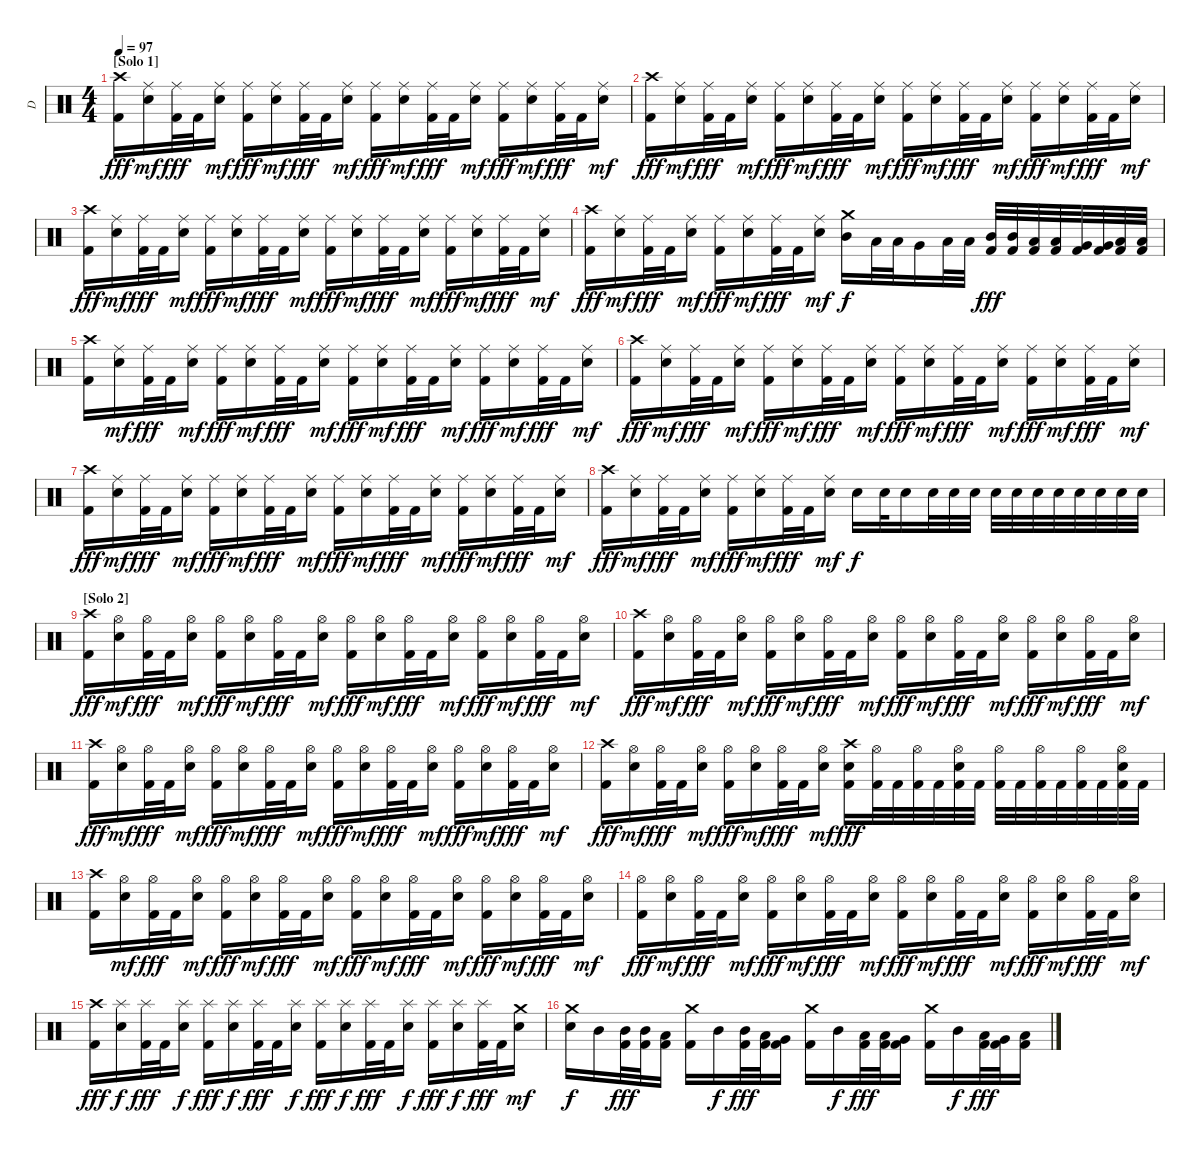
\track ("D" "D") {instrument percussion}
\staff {score}
\articulation defaults
\ts (4 4)
\section ("" "[Solo 1]")
\tempo 97
\clef neutral
\ks c
("Crash high (hit)" "Kick (hit) 2").16{dy fff} ("Ride (middle)" "Snare (hit) 2").16{dy mf} ("Ride (middle)" "Kick (hit) 2").32{dy fff} "Kick (hit) 2".32 ("Ride (middle)" "Snare (hit) 2").16{dy mf} ("Ride (middle)" "Kick (hit) 2").16{dy fff} ("Ride (middle)" "Snare (hit) 2").16{dy mf} ("Ride (middle)" "Kick (hit) 2").32{dy fff} "Kick (hit) 2".32 ("Ride (middle)" "Snare (hit) 2").16{dy mf} ("Ride (middle)" "Kick (hit) 2").16{dy fff} ("Ride (middle)" "Snare (hit) 2").16{dy mf} ("Ride (middle)" "Kick (hit) 2").32{dy fff} "Kick (hit) 2".32 ("Ride (middle)" "Snare (hit) 2").16{dy mf} ("Ride (middle)" "Kick (hit) 2").16{dy fff} ("Ride (middle)" "Snare (hit) 2").16{dy mf} ("Ride (middle)" "Kick (hit) 2").32{dy fff} "Kick (hit) 2".32 ("Ride (middle)" "Snare (hit) 2").16{dy mf} |
("Crash high (hit)" "Kick (hit) 2").16{dy fff} ("Ride (middle)" "Snare (hit) 2").16{dy mf} ("Ride (middle)" "Kick (hit) 2").32{dy fff} "Kick (hit) 2".32 ("Ride (middle)" "Snare (hit) 2").16{dy mf} ("Ride (middle)" "Kick (hit) 2").16{dy fff} ("Ride (middle)" "Snare (hit) 2").16{dy mf} ("Ride (middle)" "Kick (hit) 2").32{dy fff} "Kick (hit) 2".32 ("Ride (middle)" "Snare (hit) 2").16{dy mf} ("Ride (middle)" "Kick (hit) 2").16{dy fff} ("Ride (middle)" "Snare (hit) 2").16{dy mf} ("Ride (middle)" "Kick (hit) 2").32{dy fff} "Kick (hit) 2".32 ("Ride (middle)" "Snare (hit) 2").16{dy mf} ("Ride (middle)" "Kick (hit) 2").16{dy fff} ("Ride (middle)" "Snare (hit) 2").16{dy mf} ("Ride (middle)" "Kick (hit) 2").32{dy fff} "Kick (hit) 2".32 ("Ride (middle)" "Snare (hit) 2").16{dy mf} |
("Crash high (hit)" "Kick (hit) 2").16{dy fff} ("Ride (middle)" "Snare (hit) 2").16{dy mf} ("Ride (middle)" "Kick (hit) 2").32{dy fff} "Kick (hit) 2".32 ("Ride (middle)" "Snare (hit) 2").16{dy mf} ("Ride (middle)" "Kick (hit) 2").16{dy fff} ("Ride (middle)" "Snare (hit) 2").16{dy mf} ("Ride (middle)" "Kick (hit) 2").32{dy fff} "Kick (hit) 2".32 ("Ride (middle)" "Snare (hit) 2").16{dy mf} ("Ride (middle)" "Kick (hit) 2").16{dy fff} ("Ride (middle)" "Snare (hit) 2").16{dy mf} ("Ride (middle)" "Kick (hit) 2").32{dy fff} "Kick (hit) 2".32 ("Ride (middle)" "Snare (hit) 2").16{dy mf} ("Ride (middle)" "Kick (hit) 2").16{dy fff} ("Ride (middle)" "Snare (hit) 2").16{dy mf} ("Ride (middle)" "Kick (hit) 2").32{dy fff} "Kick (hit) 2".32 ("Ride (middle)" "Snare (hit) 2").16{dy mf} |
("Crash high (hit)" "Kick (hit) 2").16{dy fff} ("Ride (middle)" "Snare (hit) 2").16{dy mf} ("Ride (middle)" "Kick (hit) 2").32{dy fff} "Kick (hit) 2".32 ("Ride (middle)" "Snare (hit) 2").16{dy mf} ("Ride (middle)" "Kick (hit) 2").16{dy fff} ("Ride (middle)" "Snare (hit) 2").16{dy mf} ("Ride (middle)" "Kick (hit) 2").32{dy fff} "Kick (hit) 2".32 ("Ride (middle)" "Snare (hit) 2").16{dy mf} ("Crash medium (hit)" "Mid Tom (hit)").16{dy f} "Low Tom (hit)".32 "Low Tom (hit)".32 "Very Low Tom (hit)".16 "Low Floor Tom (hit)".32 "Low Floor Tom (hit)".32 ("Mid Tom (hit)" "Kick (hit) 2").32{dy fff} ("Mid Tom (hit)" "Kick (hit) 2").32 ("Low Tom (hit)" "Kick (hit) 2").32 ("Low Tom (hit)" "Kick (hit) 2").32 ("Very Low Tom (hit)" "Kick (hit) 2").32 ("Very Low Tom (hit)" "Kick (hit) 2").32 ("Low Floor Tom (hit)" "Kick (hit) 2").32 ("Low Floor Tom (hit)" "Kick (hit) 2").32 |
("Crash high (hit)" "Kick (hit) 2").16 ("Ride (middle)" "Snare (hit) 2").16{dy mf} ("Ride (middle)" "Kick (hit) 2").32{dy fff} "Kick (hit) 2".32 ("Ride (middle)" "Snare (hit) 2").16{dy mf} ("Ride (middle)" "Kick (hit) 2").16{dy fff} ("Ride (middle)" "Snare (hit) 2").16{dy mf} ("Ride (middle)" "Kick (hit) 2").32{dy fff} "Kick (hit) 2".32 ("Ride (middle)" "Snare (hit) 2").16{dy mf} ("Ride (middle)" "Kick (hit) 2").16{dy fff} ("Ride (middle)" "Snare (hit) 2").16{dy mf} ("Ride (middle)" "Kick (hit) 2").32{dy fff} "Kick (hit) 2".32 ("Ride (middle)" "Snare (hit) 2").16{dy mf} ("Ride (middle)" "Kick (hit) 2").16{dy fff} ("Ride (middle)" "Snare (hit) 2").16{dy mf} ("Ride (middle)" "Kick (hit) 2").32{dy fff} "Kick (hit) 2".32 ("Ride (middle)" "Snare (hit) 2").16{dy mf} |
("Crash high (hit)" "Kick (hit) 2").16{dy fff} ("Ride (middle)" "Snare (hit) 2").16{dy mf} ("Ride (middle)" "Kick (hit) 2").32{dy fff} "Kick (hit) 2".32 ("Ride (middle)" "Snare (hit) 2").16{dy mf} ("Ride (middle)" "Kick (hit) 2").16{dy fff} ("Ride (middle)" "Snare (hit) 2").16{dy mf} ("Ride (middle)" "Kick (hit) 2").32{dy fff} "Kick (hit) 2".32 ("Ride (middle)" "Snare (hit) 2").16{dy mf} ("Ride (middle)" "Kick (hit) 2").16{dy fff} ("Ride (middle)" "Snare (hit) 2").16{dy mf} ("Ride (middle)" "Kick (hit) 2").32{dy fff} "Kick (hit) 2".32 ("Ride (middle)" "Snare (hit) 2").16{dy mf} ("Ride (middle)" "Kick (hit) 2").16{dy fff} ("Ride (middle)" "Snare (hit) 2").16{dy mf} ("Ride (middle)" "Kick (hit) 2").32{dy fff} "Kick (hit) 2".32 ("Ride (middle)" "Snare (hit) 2").16{dy mf} |
("Crash high (hit)" "Kick (hit) 2").16{dy fff} ("Ride (middle)" "Snare (hit) 2").16{dy mf} ("Ride (middle)" "Kick (hit) 2").32{dy fff} "Kick (hit) 2".32 ("Ride (middle)" "Snare (hit) 2").16{dy mf} ("Ride (middle)" "Kick (hit) 2").16{dy fff} ("Ride (middle)" "Snare (hit) 2").16{dy mf} ("Ride (middle)" "Kick (hit) 2").32{dy fff} "Kick (hit) 2".32 ("Ride (middle)" "Snare (hit) 2").16{dy mf} ("Ride (middle)" "Kick (hit) 2").16{dy fff} ("Ride (middle)" "Snare (hit) 2").16{dy mf} ("Ride (middle)" "Kick (hit) 2").32{dy fff} "Kick (hit) 2".32 ("Ride (middle)" "Snare (hit) 2").16{dy mf} ("Ride (middle)" "Kick (hit) 2").16{dy fff} ("Ride (middle)" "Snare (hit) 2").16{dy mf} ("Ride (middle)" "Kick (hit) 2").32{dy fff} "Kick (hit) 2".32 ("Ride (middle)" "Snare (hit) 2").16{dy mf} |
("Crash high (hit)" "Kick (hit) 2").16{dy fff} ("Ride (middle)" "Snare (hit) 2").16{dy mf} ("Ride (middle)" "Kick (hit) 2").32{dy fff} "Kick (hit) 2".32 ("Ride (middle)" "Snare (hit) 2").16{dy mf} ("Ride (middle)" "Kick (hit) 2").16{dy fff} ("Ride (middle)" "Snare (hit) 2").16{dy mf} ("Ride (middle)" "Kick (hit) 2").32{dy fff} "Kick (hit) 2".32 ("Ride (middle)" "Snare (hit) 2").16{dy mf} "Snare (hit) 2".16{dy f} "Snare (hit) 2".32 "Snare (hit) 2".16 "Snare (hit) 2".32 "Snare (hit) 2".32 "Snare (hit) 2".32 "Snare (hit) 2".32 "Snare (hit) 2".32 "Snare (hit) 2".32 "Snare (hit) 2".32 "Snare (hit) 2".32 "Snare (hit) 2".32 "Snare (hit) 2".32 "Snare (hit) 2".32 |
\section ("" "[Solo 2]")
("Crash high (hit)" "Kick (hit) 2").16{dy fff} ("Hi-Hat (open)" "Snare (hit) 2").16{dy mf} ("Hi-Hat (open)" "Kick (hit) 2").32{dy fff} "Kick (hit) 2".32 ("Hi-Hat (open)" "Snare (hit) 2").16{dy mf} ("Hi-Hat (open)" "Kick (hit) 2").16{dy fff} ("Hi-Hat (open)" "Snare (hit) 2").16{dy mf} ("Hi-Hat (open)" "Kick (hit) 2").32{dy fff} "Kick (hit) 2".32 ("Hi-Hat (open)" "Snare (hit) 2").16{dy mf} ("Hi-Hat (open)" "Kick (hit) 2").16{dy fff} ("Hi-Hat (open)" "Snare (hit) 2").16{dy mf} ("Hi-Hat (open)" "Kick (hit) 2").32{dy fff} "Kick (hit) 2".32 ("Hi-Hat (open)" "Snare (hit) 2").16{dy mf} ("Hi-Hat (open)" "Kick (hit) 2").16{dy fff} ("Hi-Hat (open)" "Snare (hit) 2").16{dy mf} ("Hi-Hat (open)" "Kick (hit) 2").32{dy fff} "Kick (hit) 2".32 ("Hi-Hat (open)" "Snare (hit) 2").16{dy mf} |
("Crash high (hit)" "Kick (hit) 2").16{dy fff} ("Hi-Hat (open)" "Snare (hit) 2").16{dy mf} ("Hi-Hat (open)" "Kick (hit) 2").32{dy fff} "Kick (hit) 2".32 ("Hi-Hat (open)" "Snare (hit) 2").16{dy mf} ("Hi-Hat (open)" "Kick (hit) 2").16{dy fff} ("Hi-Hat (open)" "Snare (hit) 2").16{dy mf} ("Hi-Hat (open)" "Kick (hit) 2").32{dy fff} "Kick (hit) 2".32 ("Hi-Hat (open)" "Snare (hit) 2").16{dy mf} ("Hi-Hat (open)" "Kick (hit) 2").16{dy fff} ("Hi-Hat (open)" "Snare (hit) 2").16{dy mf} ("Hi-Hat (open)" "Kick (hit) 2").32{dy fff} "Kick (hit) 2".32 ("Hi-Hat (open)" "Snare (hit) 2").16{dy mf} ("Hi-Hat (open)" "Kick (hit) 2").16{dy fff} ("Hi-Hat (open)" "Snare (hit) 2").16{dy mf} ("Hi-Hat (open)" "Kick (hit) 2").32{dy fff} "Kick (hit) 2".32 ("Hi-Hat (open)" "Snare (hit) 2").16{dy mf} |
("Crash high (hit)" "Kick (hit) 2").16{dy fff} ("Hi-Hat (open)" "Snare (hit) 2").16{dy mf} ("Hi-Hat (open)" "Kick (hit) 2").32{dy fff} "Kick (hit) 2".32 ("Hi-Hat (open)" "Snare (hit) 2").16{dy mf} ("Hi-Hat (open)" "Kick (hit) 2").16{dy fff} ("Hi-Hat (open)" "Snare (hit) 2").16{dy mf} ("Hi-Hat (open)" "Kick (hit) 2").32{dy fff} "Kick (hit) 2".32 ("Hi-Hat (open)" "Snare (hit) 2").16{dy mf} ("Hi-Hat (open)" "Kick (hit) 2").16{dy fff} ("Hi-Hat (open)" "Snare (hit) 2").16{dy mf} ("Hi-Hat (open)" "Kick (hit) 2").32{dy fff} "Kick (hit) 2".32 ("Hi-Hat (open)" "Snare (hit) 2").16{dy mf} ("Hi-Hat (open)" "Kick (hit) 2").16{dy fff} ("Hi-Hat (open)" "Snare (hit) 2").16{dy mf} ("Hi-Hat (open)" "Kick (hit) 2").32{dy fff} "Kick (hit) 2".32 ("Hi-Hat (open)" "Snare (hit) 2").16{dy mf} |
("Crash high (hit)" "Kick (hit) 2").16{dy fff} ("Hi-Hat (open)" "Snare (hit) 2").16{dy mf} ("Hi-Hat (open)" "Kick (hit) 2").32{dy fff} "Kick (hit) 2".32 ("Hi-Hat (open)" "Snare (hit) 2").16{dy mf} ("Hi-Hat (open)" "Kick (hit) 2").16{dy fff} ("Hi-Hat (open)" "Snare (hit) 2").16{dy mf} ("Hi-Hat (open)" "Kick (hit) 2").32{dy fff} "Kick (hit) 2".32 ("Hi-Hat (open)" "Snare (hit) 2").16{dy mf} ("Crash high (hit)" "Snare (hit) 2" "Kick (hit) 2").16{dy fff} ("Hi-Hat (open)" "Kick (hit) 2").32 "Kick (hit) 2".32 ("Hi-Hat (open)" "Kick (hit) 2").32 "Kick (hit) 2".32 ("Hi-Hat (open)" "Snare (hit) 2" "Kick (hit) 2").32 "Kick (hit) 2".32 ("Hi-Hat (open)" "Kick (hit) 2").32 "Kick (hit) 2".32 ("Hi-Hat (open)" "Kick (hit) 2").32 "Kick (hit) 2".32 ("Hi-Hat (open)" "Kick (hit) 2").32 "Kick (hit) 2".32 ("Hi-Hat (open)" "Snare (hit) 2" "Kick (hit) 2").32 "Kick (hit) 2".32 |
("Crash high (hit)" "Kick (hit) 2").16 ("Hi-Hat (open)" "Snare (hit) 2").16{dy mf} ("Hi-Hat (open)" "Kick (hit) 2").32{dy fff} "Kick (hit) 2".32 ("Hi-Hat (open)" "Snare (hit) 2").16{dy mf} ("Hi-Hat (open)" "Kick (hit) 2").16{dy fff} ("Hi-Hat (open)" "Snare (hit) 2").16{dy mf} ("Hi-Hat (open)" "Kick (hit) 2").32{dy fff} "Kick (hit) 2".32 ("Hi-Hat (open)" "Snare (hit) 2").16{dy mf} ("Hi-Hat (open)" "Kick (hit) 2").16{dy fff} ("Hi-Hat (open)" "Snare (hit) 2").16{dy mf} ("Hi-Hat (open)" "Kick (hit) 2").32{dy fff} "Kick (hit) 2".32 ("Hi-Hat (open)" "Snare (hit) 2").16{dy mf} ("Hi-Hat (open)" "Kick (hit) 2").16{dy fff} ("Hi-Hat (open)" "Snare (hit) 2").16{dy mf} ("Hi-Hat (open)" "Kick (hit) 2").32{dy fff} "Kick (hit) 2".32 ("Hi-Hat (open)" "Snare (hit) 2").16{dy mf} |
("Hi-Hat (open)" "Kick (hit) 2").16{dy fff} ("Hi-Hat (open)" "Snare (hit) 2").16{dy mf} ("Hi-Hat (open)" "Kick (hit) 2").32{dy fff} "Kick (hit) 2".32 ("Hi-Hat (open)" "Snare (hit) 2").16{dy mf} ("Hi-Hat (open)" "Kick (hit) 2").16{dy fff} ("Hi-Hat (open)" "Snare (hit) 2").16{dy mf} ("Hi-Hat (open)" "Kick (hit) 2").32{dy fff} "Kick (hit) 2".32 ("Hi-Hat (open)" "Snare (hit) 2").16{dy mf} ("Hi-Hat (open)" "Kick (hit) 2").16{dy fff} ("Hi-Hat (open)" "Snare (hit) 2").16{dy mf} ("Hi-Hat (open)" "Kick (hit) 2").32{dy fff} "Kick (hit) 2".32 ("Hi-Hat (open)" "Snare (hit) 2").16{dy mf} ("Hi-Hat (open)" "Kick (hit) 2").16{dy fff} ("Hi-Hat (open)" "Snare (hit) 2").16{dy mf} ("Hi-Hat (open)" "Kick (hit) 2").32{dy fff} "Kick (hit) 2".32 ("Hi-Hat (open)" "Snare (hit) 2").16{dy mf} |
("Crash high (hit)" "Kick (hit) 2").16{dy fff} ("Splash (hit)" "Snare (hit) 2").16{dy f} ("Splash (hit)" "Kick (hit) 2").32{dy fff} "Kick (hit) 2".32 ("Splash (hit)" "Snare (hit) 2").16{dy f} ("Splash (hit)" "Kick (hit) 2").16{dy fff} ("Splash (hit)" "Snare (hit) 2").16{dy f} ("Splash (hit)" "Kick (hit) 2").32{dy fff} "Kick (hit) 2".32 ("Splash (hit)" "Snare (hit) 2").16{dy f} ("Splash (hit)" "Kick (hit) 2").16{dy fff} ("Splash (hit)" "Snare (hit) 2").16{dy f} ("Splash (hit)" "Kick (hit) 2").32{dy fff} "Kick (hit) 2".32 ("Splash (hit)" "Snare (hit) 2").16{dy f} ("Splash (hit)" "Kick (hit) 2").16{dy fff} ("Splash (hit)" "Snare (hit) 2").16{dy f} ("Splash (hit)" "Kick (hit) 2").32{dy fff} "Kick (hit) 2".32 ("Crash medium (hit)" "Snare (hit) 2").16{dy mf} |
("Crash medium (hit)" "Snare (hit) 2").16{dy f} "Mid Tom (hit)".16 ("Mid Tom (hit)" "Kick (hit) 2").32{dy fff} ("Mid Tom (hit)" "Kick (hit) 2").32 ("Low Tom (hit)" "Kick (hit) 2").16 ("Crash medium (hit)" "Kick (hit) 2").16 "Mid Tom (hit)".16{dy f} ("Mid Tom (hit)" "Kick (hit) 2").32{dy fff} ("Low Tom (hit)" "Kick (hit) 2").32 ("Very Low Tom (hit)" "Kick (hit) 2").16 ("Crash medium (hit)" "Kick (hit) 2").16 "Mid Tom (hit)".16{dy f} ("Low Tom (hit)" "Kick (hit) 2").32{dy fff} ("Low Tom (hit)" "Kick (hit) 2").32 ("Very Low Tom (hit)" "Kick (hit) 2").16 ("Crash medium (hit)" "Kick (hit) 2").16 "Mid Tom (hit)".16{dy f} ("Low Tom (hit)" "Kick (hit) 2").32{dy fff} ("Very Low Tom (hit)" "Kick (hit) 2").32 ("Low Floor Tom (hit)" "Kick (hit) 2").16
